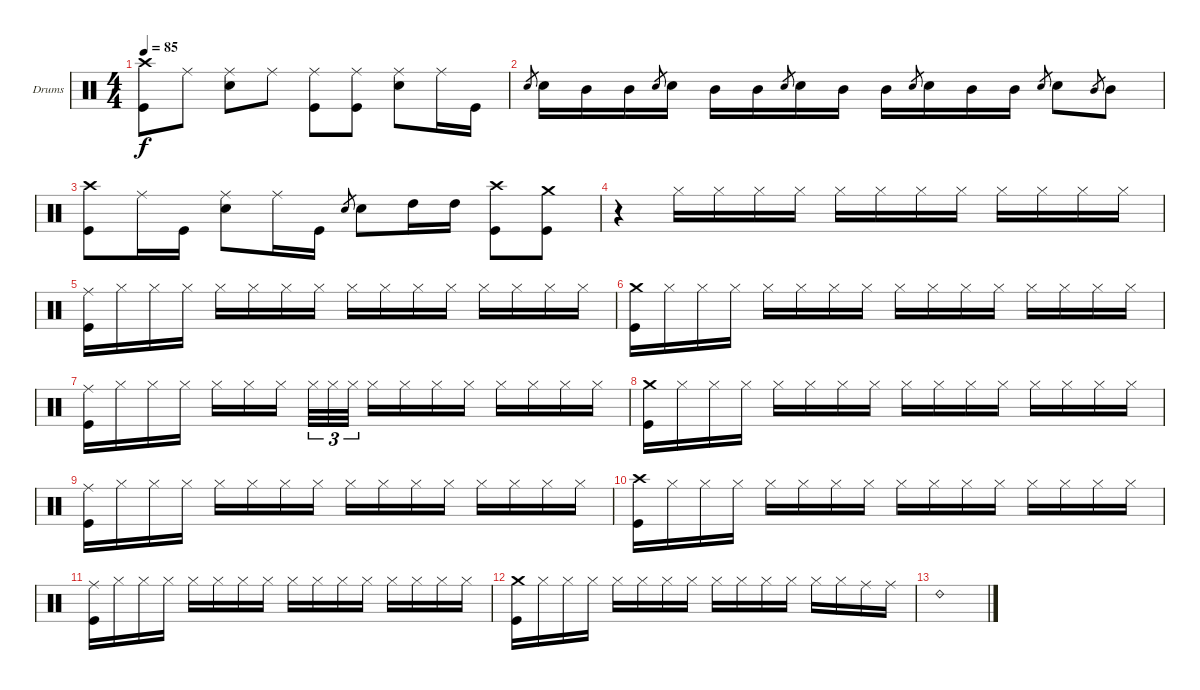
\defaultSystemsLayout 4
\bracketExtendMode groupsimilarinstruments
\firstSystemTrackNameOrientation horizontal
\otherSystemsTrackNameOrientation horizontal
\track ("Matt" "Drums") {instrument percussion}
\staff {score}
\articulation defaults
\ts (4 4)
\tempo 85
\clef neutral
\ks c
("Crash high (hit)" "Kick (hit)").8{dy f} "Ride (middle)".8 ("Ride (middle)" "Snare (hit) 2").8 "Ride (middle)".8 ("Ride (middle)" "Kick (hit)").8 ("Ride (middle)" "Kick (hit)").8 ("Ride (middle)" "Snare (hit) 2").8 "Ride (middle)".16 "Kick (hit)".16 |
"Snare (hit) 2".8{gr} "Snare (hit) 2".16 "Mid Tom (hit)".16 "Mid Tom (hit)".16 "Snare (hit) 2".8{gr} "Snare (hit) 2".16 "Mid Tom (hit)".16 "Mid Tom (hit)".16 "Snare (hit) 2".8{gr} "Snare (hit) 2".16 "Mid Tom (hit)".16 "Mid Tom (hit)".16 "Snare (hit) 2".8{gr} "Snare (hit) 2".16 "Mid Tom (hit)".16 "Mid Tom (hit)".16 "Snare (hit) 2".8{gr} "Snare (hit) 2".8 "Mid Tom (hit)".8{gr} "Mid Tom (hit)".8 |
("Crash high (hit)" "Kick (hit)").8 "Ride (middle)".16 "Kick (hit)".16 ("Ride (middle)" "Snare (hit) 2").8 "Ride (middle)".16 "Kick (hit)".16 "Snare (hit) 2".8{gr} "Snare (hit) 2".8 "High Tom (hit)".16 "High Tom (hit)".16 ("Crash high (hit)" "Kick (hit)").8 ("Crash medium (hit)" "Kick (hit)").8 |
r.4 "Hi-Hat (closed)".16 "Hi-Hat (closed)".16 "Hi-Hat (closed)".16 "Hi-Hat (closed)".16 "Hi-Hat (closed)".16 "Hi-Hat (closed)".16 "Hi-Hat (closed)".16 "Hi-Hat (closed)".16 "Hi-Hat (closed)".16 "Hi-Hat (closed)".16 "Hi-Hat (closed)".16 "Hi-Hat (closed)".16 |
("Ride (middle)" "Kick (hit)").16 "Hi-Hat (closed)".16 "Hi-Hat (closed)".16 "Hi-Hat (closed)".16 "Hi-Hat (closed)".16 "Hi-Hat (closed)".16 "Hi-Hat (closed)".16 "Hi-Hat (closed)".16 "Hi-Hat (closed)".16 "Hi-Hat (closed)".16 "Hi-Hat (closed)".16 "Hi-Hat (closed)".16 "Hi-Hat (closed)".16 "Hi-Hat (closed)".16 "Hi-Hat (closed)".16 "Hi-Hat (closed)".16 |
("Crash medium (hit)" "Kick (hit)").16 "Hi-Hat (closed)".16 "Hi-Hat (closed)".16 "Hi-Hat (closed)".16 "Hi-Hat (closed)".16 "Hi-Hat (closed)".16 "Hi-Hat (closed)".16 "Hi-Hat (closed)".16 "Hi-Hat (closed)".16 "Hi-Hat (closed)".16 "Hi-Hat (closed)".16 "Hi-Hat (closed)".16 "Hi-Hat (closed)".16 "Hi-Hat (closed)".16 "Hi-Hat (closed)".16 "Hi-Hat (closed)".16 |
("Ride (middle)" "Kick (hit)").16 "Hi-Hat (closed)".16 "Hi-Hat (closed)".16 "Hi-Hat (closed)".16 "Hi-Hat (closed)".16 "Hi-Hat (closed)".16 "Hi-Hat (closed)".16 "Hi-Hat (closed)".32{tu (3 2)} "Hi-Hat (closed)".32{tu (3 2)} "Hi-Hat (closed)".32{tu (3 2)} "Hi-Hat (closed)".16 "Hi-Hat (closed)".16 "Hi-Hat (closed)".16 "Hi-Hat (closed)".16 "Hi-Hat (closed)".16 "Hi-Hat (closed)".16 "Hi-Hat (closed)".16 "Hi-Hat (closed)".16 |
("Crash medium (hit)" "Kick (hit)").16 "Hi-Hat (closed)".16 "Hi-Hat (closed)".16 "Hi-Hat (closed)".16 "Hi-Hat (closed)".16 "Hi-Hat (closed)".16 "Hi-Hat (closed)".16 "Hi-Hat (closed)".16 "Hi-Hat (closed)".16 "Hi-Hat (closed)".16 "Hi-Hat (closed)".16 "Hi-Hat (closed)".16 "Hi-Hat (closed)".16 "Hi-Hat (closed)".16 "Hi-Hat (closed)".16 "Hi-Hat (closed)".16 |
("Ride (middle)" "Kick (hit)").16 "Hi-Hat (closed)".16 "Hi-Hat (closed)".16 "Hi-Hat (closed)".16 "Hi-Hat (closed)".16 "Hi-Hat (closed)".16 "Hi-Hat (closed)".16 "Hi-Hat (closed)".16 "Hi-Hat (closed)".16 "Hi-Hat (closed)".16 "Hi-Hat (closed)".16 "Hi-Hat (closed)".16 "Hi-Hat (closed)".16 "Hi-Hat (closed)".16 "Hi-Hat (closed)".16 "Hi-Hat (closed)".16 |
("Crash high (hit)" "Kick (hit)").16 "Hi-Hat (closed)".16 "Hi-Hat (closed)".16 "Hi-Hat (closed)".16 "Hi-Hat (closed)".16 "Hi-Hat (closed)".16 "Hi-Hat (closed)".16 "Hi-Hat (closed)".16 "Hi-Hat (closed)".16 "Hi-Hat (closed)".16 "Hi-Hat (closed)".16 "Hi-Hat (closed)".16 "Hi-Hat (closed)".16 "Hi-Hat (closed)".16 "Hi-Hat (closed)".16 "Hi-Hat (closed)".16 |
("Ride (middle)" "Kick (hit)").16 "Hi-Hat (closed)".16 "Hi-Hat (closed)".16 "Hi-Hat (closed)".16 "Hi-Hat (closed)".16 "Hi-Hat (closed)".16 "Hi-Hat (closed)".16 "Hi-Hat (closed)".16 "Hi-Hat (closed)".16 "Hi-Hat (closed)".16 "Hi-Hat (closed)".16 "Hi-Hat (closed)".16 "Hi-Hat (closed)".16 "Hi-Hat (closed)".16 "Hi-Hat (closed)".16 "Hi-Hat (closed)".16 |
("Crash medium (hit)" "Kick (hit)").16 "Hi-Hat (closed)".16 "Hi-Hat (closed)".16 "Hi-Hat (closed)".16 "Hi-Hat (closed)".16 "Hi-Hat (closed)".16 "Hi-Hat (closed)".16 "Hi-Hat (closed)".16 "Hi-Hat (closed)".16 "Hi-Hat (closed)".16 "Hi-Hat (closed)".16 "Hi-Hat (closed)".16 "Hi-Hat (closed)".16 "Hi-Hat (closed)".16 "Ride (middle)".16 "Ride (middle)".16 |
"Ride (bell) 2".1
